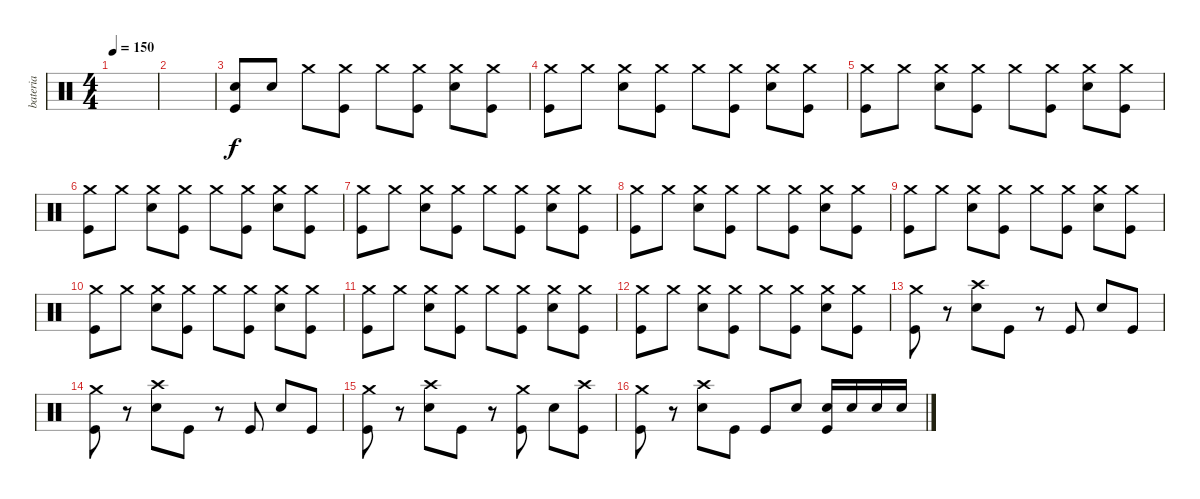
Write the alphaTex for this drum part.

\track ("bateria" "bateria") {instrument percussion}
\staff {score}
\articulation defaults
\ts (4 4)
\tempo 150
\clef neutral
\ks c
|
|
("Electric Snare (hit)" "Kick (hit)").8 "Electric Snare (hit)".8 "Crash medium (hit)".8 ("Crash medium (hit)" "Kick (hit)").8 "Crash medium (hit)".8 ("Crash medium (hit)" "Kick (hit)").8 ("Crash medium (hit)" "Electric Snare (hit)").8 ("Crash medium (hit)" "Kick (hit)").8 |
("Crash medium (hit)" "Kick (hit)").8 "Crash medium (hit)".8 ("Crash medium (hit)" "Electric Snare (hit)").8 ("Crash medium (hit)" "Kick (hit)").8 "Crash medium (hit)".8 ("Crash medium (hit)" "Kick (hit)").8 ("Crash medium (hit)" "Electric Snare (hit)").8 ("Crash medium (hit)" "Kick (hit)").8 |
("Crash medium (hit)" "Kick (hit)").8 "Crash medium (hit)".8 ("Crash medium (hit)" "Electric Snare (hit)").8 ("Crash medium (hit)" "Kick (hit)").8 "Crash medium (hit)".8 ("Crash medium (hit)" "Kick (hit)").8 ("Crash medium (hit)" "Electric Snare (hit)").8 ("Crash medium (hit)" "Kick (hit)").8 |
("Crash medium (hit)" "Kick (hit)").8 "Crash medium (hit)".8 ("Crash medium (hit)" "Electric Snare (hit)").8 ("Crash medium (hit)" "Kick (hit)").8 "Crash medium (hit)".8 ("Crash medium (hit)" "Kick (hit)").8 ("Crash medium (hit)" "Electric Snare (hit)").8 ("Crash medium (hit)" "Kick (hit)").8 |
("Crash medium (hit)" "Kick (hit)").8 "Crash medium (hit)".8 ("Crash medium (hit)" "Electric Snare (hit)").8 ("Crash medium (hit)" "Kick (hit)").8 "Crash medium (hit)".8 ("Crash medium (hit)" "Kick (hit)").8 ("Crash medium (hit)" "Electric Snare (hit)").8 ("Crash medium (hit)" "Kick (hit)").8 |
("Crash medium (hit)" "Kick (hit)").8 "Crash medium (hit)".8 ("Crash medium (hit)" "Electric Snare (hit)").8 ("Crash medium (hit)" "Kick (hit)").8 "Crash medium (hit)".8 ("Crash medium (hit)" "Kick (hit)").8 ("Crash medium (hit)" "Electric Snare (hit)").8 ("Crash medium (hit)" "Kick (hit)").8 |
("Crash medium (hit)" "Kick (hit)").8 "Crash medium (hit)".8 ("Crash medium (hit)" "Electric Snare (hit)").8 ("Crash medium (hit)" "Kick (hit)").8 "Crash medium (hit)".8 ("Crash medium (hit)" "Kick (hit)").8 ("Crash medium (hit)" "Electric Snare (hit)").8 ("Crash medium (hit)" "Kick (hit)").8 |
("Crash medium (hit)" "Kick (hit)").8 "Crash medium (hit)".8 ("Crash medium (hit)" "Electric Snare (hit)").8 ("Crash medium (hit)" "Kick (hit)").8 "Crash medium (hit)".8 ("Crash medium (hit)" "Kick (hit)").8 ("Crash medium (hit)" "Electric Snare (hit)").8 ("Crash medium (hit)" "Kick (hit)").8 |
("Crash medium (hit)" "Kick (hit)").8 "Crash medium (hit)".8 ("Crash medium (hit)" "Electric Snare (hit)").8 ("Crash medium (hit)" "Kick (hit)").8 "Crash medium (hit)".8 ("Crash medium (hit)" "Kick (hit)").8 ("Crash medium (hit)" "Electric Snare (hit)").8 ("Crash medium (hit)" "Kick (hit)").8 |
("Crash medium (hit)" "Kick (hit)").8 "Crash medium (hit)".8 ("Crash medium (hit)" "Electric Snare (hit)").8 ("Crash medium (hit)" "Kick (hit)").8 "Crash medium (hit)".8 ("Crash medium (hit)" "Kick (hit)").8 ("Crash medium (hit)" "Electric Snare (hit)").8 ("Crash medium (hit)" "Kick (hit)").8 |
("Crash medium (hit)" "Kick (hit)").8 r.8 ("Crash high (hit)" "Electric Snare (hit)").8 "Kick (hit)".8 r.8 "Kick (hit)".8 "Electric Snare (hit)".8 "Kick (hit)".8 |
("Crash medium (hit)" "Kick (hit)").8 r.8 ("Crash high (hit)" "Electric Snare (hit)").8 "Kick (hit)".8 r.8 "Kick (hit)".8 "Electric Snare (hit)".8 "Kick (hit)".8 |
("Crash medium (hit)" "Kick (hit)").8 r.8 ("Crash high (hit)" "Electric Snare (hit)").8 "Kick (hit)".8 r.8 ("Crash medium (hit)" "Kick (hit)").8 "Electric Snare (hit)".8 ("Crash high (hit)" "Kick (hit)").8 |
("Crash medium (hit)" "Kick (hit)").8 r.8 ("Crash high (hit)" "Electric Snare (hit)").8 "Kick (hit)".8 "Kick (hit)".8 "Electric Snare (hit)".8 ("Electric Snare (hit)" "Kick (hit)").16 "Electric Snare (hit)".16 "Electric Snare (hit)".16 "Electric Snare (hit)".16
